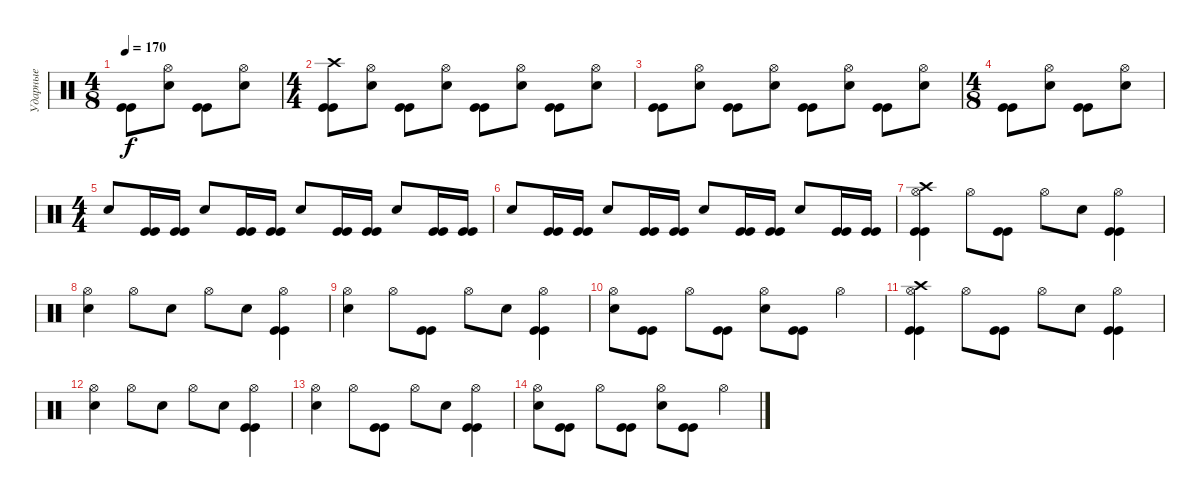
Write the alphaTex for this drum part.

\track ("Ударные" "Ударные") {instrument percussion}
\staff {score}
\articulation defaults
\ts (4 8)
\tempo 170
\clef neutral
\ks c
("Kick (hit)" "Kick (hit)").8{dy f} ("Hi-Hat (open)" "Electric Snare (hit)").8 ("Kick (hit)" "Kick (hit)").8 ("Hi-Hat (open)" "Electric Snare (hit)").8 |
\ts (4 4)
("Crash high (hit)" "Kick (hit)" "Kick (hit)").8 ("Hi-Hat (open)" "Electric Snare (hit)").8 ("Kick (hit)" "Kick (hit)").8 ("Hi-Hat (open)" "Electric Snare (hit)").8 ("Kick (hit)" "Kick (hit)").8 ("Hi-Hat (open)" "Electric Snare (hit)").8 ("Kick (hit)" "Kick (hit)").8 ("Hi-Hat (open)" "Electric Snare (hit)").8 |
("Kick (hit)" "Kick (hit)").8 ("Hi-Hat (open)" "Electric Snare (hit)").8 ("Kick (hit)" "Kick (hit)").8 ("Hi-Hat (open)" "Electric Snare (hit)").8 ("Kick (hit)" "Kick (hit)").8 ("Hi-Hat (open)" "Electric Snare (hit)").8 ("Kick (hit)" "Kick (hit)").8 ("Hi-Hat (open)" "Electric Snare (hit)").8 |
\ts (4 8)
("Kick (hit)" "Kick (hit)").8 ("Hi-Hat (open)" "Electric Snare (hit)").8 ("Kick (hit)" "Kick (hit)").8 ("Hi-Hat (open)" "Electric Snare (hit)").8 |
\ts (4 4)
"Electric Snare (hit)".8 ("Kick (hit)" "Kick (hit)").16 ("Kick (hit)" "Kick (hit)").16 "Electric Snare (hit)".8 ("Kick (hit)" "Kick (hit)").16 ("Kick (hit)" "Kick (hit)").16 "Electric Snare (hit)".8 ("Kick (hit)" "Kick (hit)").16 ("Kick (hit)" "Kick (hit)").16 "Electric Snare (hit)".8 ("Kick (hit)" "Kick (hit)").16 ("Kick (hit)" "Kick (hit)").16 |
"Electric Snare (hit)".8 ("Kick (hit)" "Kick (hit)").16 ("Kick (hit)" "Kick (hit)").16 "Electric Snare (hit)".8 ("Kick (hit)" "Kick (hit)").16 ("Kick (hit)" "Kick (hit)").16 "Electric Snare (hit)".8 ("Kick (hit)" "Kick (hit)").16 ("Kick (hit)" "Kick (hit)").16 "Electric Snare (hit)".8 ("Kick (hit)" "Kick (hit)").16 ("Kick (hit)" "Kick (hit)").16 |
("Crash high (hit)" "Hi-Hat (open)" "Kick (hit)" "Kick (hit)").4 "Hi-Hat (open)".8 ("Kick (hit)" "Kick (hit)").8 "Hi-Hat (open)".8 "Electric Snare (hit)".8 ("Hi-Hat (open)" "Kick (hit)" "Kick (hit)").4 |
("Hi-Hat (open)" "Electric Snare (hit)").4 "Hi-Hat (open)".8 "Electric Snare (hit)".8 "Hi-Hat (open)".8 "Electric Snare (hit)".8 ("Hi-Hat (open)" "Kick (hit)" "Kick (hit)").4 |
("Hi-Hat (open)" "Electric Snare (hit)").4 "Hi-Hat (open)".8 ("Kick (hit)" "Kick (hit)").8 "Hi-Hat (open)".8 "Electric Snare (hit)".8 ("Hi-Hat (open)" "Kick (hit)" "Kick (hit)").4 |
("Hi-Hat (open)" "Electric Snare (hit)").8 ("Kick (hit)" "Kick (hit)").8 "Hi-Hat (open)".8 ("Kick (hit)" "Kick (hit)").8 ("Hi-Hat (open)" "Electric Snare (hit)").8 ("Kick (hit)" "Kick (hit)").8 "Hi-Hat (open)".4 |
("Crash high (hit)" "Hi-Hat (open)" "Kick (hit)" "Kick (hit)").4 "Hi-Hat (open)".8 ("Kick (hit)" "Kick (hit)").8 "Hi-Hat (open)".8 "Electric Snare (hit)".8 ("Hi-Hat (open)" "Kick (hit)" "Kick (hit)").4 |
("Hi-Hat (open)" "Electric Snare (hit)").4 "Hi-Hat (open)".8 "Electric Snare (hit)".8 "Hi-Hat (open)".8 "Electric Snare (hit)".8 ("Hi-Hat (open)" "Kick (hit)" "Kick (hit)").4 |
("Hi-Hat (open)" "Electric Snare (hit)").4 "Hi-Hat (open)".8 ("Kick (hit)" "Kick (hit)").8 "Hi-Hat (open)".8 "Electric Snare (hit)".8 ("Hi-Hat (open)" "Kick (hit)" "Kick (hit)").4 |
("Hi-Hat (open)" "Electric Snare (hit)").8 ("Kick (hit)" "Kick (hit)").8 "Hi-Hat (open)".8 ("Kick (hit)" "Kick (hit)").8 ("Hi-Hat (open)" "Electric Snare (hit)").8 ("Kick (hit)" "Kick (hit)").8 "Hi-Hat (open)".4
